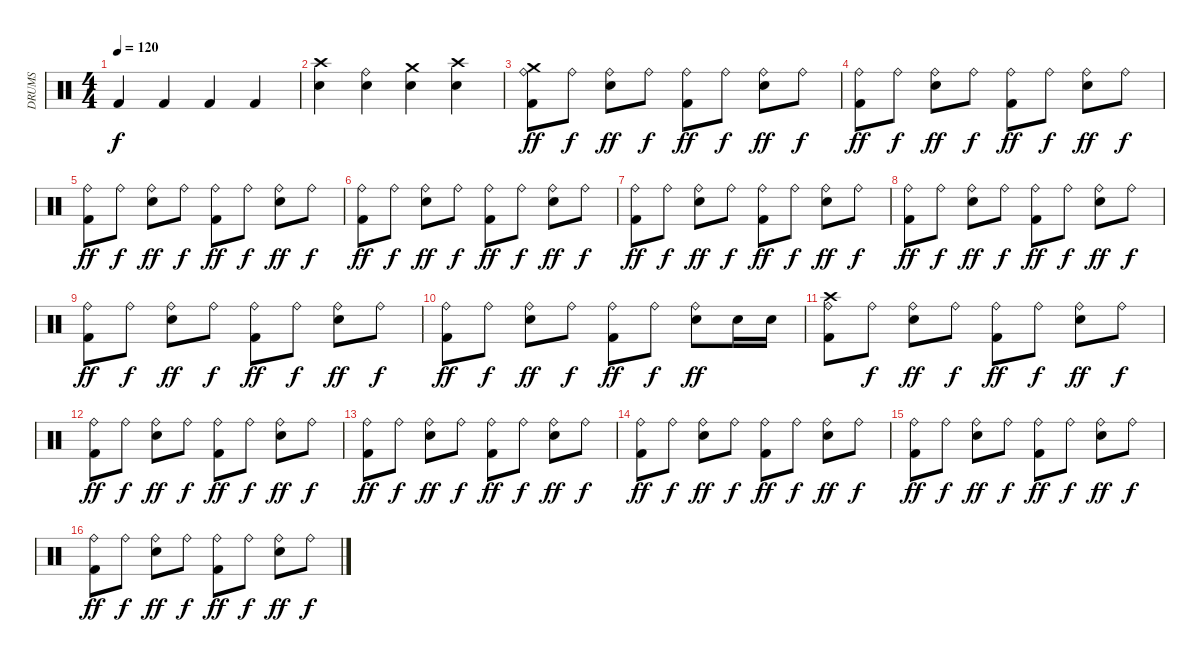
\track ("DRUMS" "DRUMS") {instrument percussion}
\staff {score}
\articulation defaults
\ts (4 4)
\tempo 120
\clef neutral
\ks c "Kick (hit) 2".4{dy f} "Kick (hit) 2".4 "Kick (hit) 2".4 "Kick (hit) 2".4
|
("Electric Snare (hit)" "Crash high (hit)").4 ("Electric Snare (hit)" "Ride (bell)").4 ("Electric Snare (hit)" "Crash medium (hit)").4 ("Electric Snare (hit)" "Crash high (hit)").4 |
("Ride (bell)" "Kick (hit) 2" "Crash medium (hit)").8{dy ff} "Ride (bell)".8{dy f} ("Ride (bell)" "Electric Snare (hit)").8{dy ff} "Ride (bell)".8{dy f} ("Ride (bell)" "Kick (hit) 2").8{dy ff} "Ride (bell)".8{dy f} ("Ride (bell)" "Electric Snare (hit)").8{dy ff} "Ride (bell)".8{dy f} |
("Ride (bell)" "Kick (hit) 2").8{dy ff} "Ride (bell)".8{dy f} ("Ride (bell)" "Electric Snare (hit)").8{dy ff} "Ride (bell)".8{dy f} ("Ride (bell)" "Kick (hit) 2").8{dy ff} "Ride (bell)".8{dy f} ("Ride (bell)" "Electric Snare (hit)").8{dy ff} "Ride (bell)".8{dy f} |
("Ride (bell)" "Kick (hit) 2").8{dy ff} "Ride (bell)".8{dy f} ("Ride (bell)" "Electric Snare (hit)").8{dy ff} "Ride (bell)".8{dy f} ("Ride (bell)" "Kick (hit) 2").8{dy ff} "Ride (bell)".8{dy f} ("Ride (bell)" "Electric Snare (hit)").8{dy ff} "Ride (bell)".8{dy f} |
("Ride (bell)" "Kick (hit) 2").8{dy ff} "Ride (bell)".8{dy f} ("Ride (bell)" "Electric Snare (hit)").8{dy ff} "Ride (bell)".8{dy f} ("Ride (bell)" "Kick (hit) 2").8{dy ff} "Ride (bell)".8{dy f} ("Ride (bell)" "Electric Snare (hit)").8{dy ff} "Ride (bell)".8{dy f} |
("Ride (bell)" "Kick (hit) 2").8{dy ff} "Ride (bell)".8{dy f} ("Ride (bell)" "Electric Snare (hit)").8{dy ff} "Ride (bell)".8{dy f} ("Ride (bell)" "Kick (hit) 2").8{dy ff} "Ride (bell)".8{dy f} ("Ride (bell)" "Electric Snare (hit)").8{dy ff} "Ride (bell)".8{dy f} |
("Ride (bell)" "Kick (hit) 2").8{dy ff} "Ride (bell)".8{dy f} ("Ride (bell)" "Electric Snare (hit)").8{dy ff} "Ride (bell)".8{dy f} ("Ride (bell)" "Kick (hit) 2").8{dy ff} "Ride (bell)".8{dy f} ("Ride (bell)" "Electric Snare (hit)").8{dy ff} "Ride (bell)".8{dy f} |
("Ride (bell)" "Kick (hit) 2").8{dy ff} "Ride (bell)".8{dy f} ("Ride (bell)" "Electric Snare (hit)").8{dy ff} "Ride (bell)".8{dy f} ("Ride (bell)" "Kick (hit) 2").8{dy ff} "Ride (bell)".8{dy f} ("Ride (bell)" "Electric Snare (hit)").8{dy ff} "Ride (bell)".8{dy f} |
("Ride (bell)" "Kick (hit) 2").8{dy ff} "Ride (bell)".8{dy f} ("Ride (bell)" "Electric Snare (hit)").8{dy ff} "Ride (bell)".8{dy f} ("Ride (bell)" "Kick (hit) 2").8{dy ff} "Ride (bell)".8{dy f} ("Ride (bell)" "Electric Snare (hit)").8{dy ff} "Electric Snare (hit)".16 "Electric Snare (hit)".16 |
("Ride (bell)" "Kick (hit) 2" "Crash high (hit)").8 "Ride (bell)".8{dy f} ("Ride (bell)" "Electric Snare (hit)").8{dy ff} "Ride (bell)".8{dy f} ("Ride (bell)" "Kick (hit) 2").8{dy ff} "Ride (bell)".8{dy f} ("Ride (bell)" "Electric Snare (hit)").8{dy ff} "Ride (bell)".8{dy f} |
("Ride (bell)" "Kick (hit) 2").8{dy ff} "Ride (bell)".8{dy f} ("Ride (bell)" "Electric Snare (hit)").8{dy ff} "Ride (bell)".8{dy f} ("Ride (bell)" "Kick (hit) 2").8{dy ff} "Ride (bell)".8{dy f} ("Ride (bell)" "Electric Snare (hit)").8{dy ff} "Ride (bell)".8{dy f} |
("Ride (bell)" "Kick (hit) 2").8{dy ff} "Ride (bell)".8{dy f} ("Ride (bell)" "Electric Snare (hit)").8{dy ff} "Ride (bell)".8{dy f} ("Ride (bell)" "Kick (hit) 2").8{dy ff} "Ride (bell)".8{dy f} ("Ride (bell)" "Electric Snare (hit)").8{dy ff} "Ride (bell)".8{dy f} |
("Ride (bell)" "Kick (hit) 2").8{dy ff} "Ride (bell)".8{dy f} ("Ride (bell)" "Electric Snare (hit)").8{dy ff} "Ride (bell)".8{dy f} ("Ride (bell)" "Kick (hit) 2").8{dy ff} "Ride (bell)".8{dy f} ("Ride (bell)" "Electric Snare (hit)").8{dy ff} "Ride (bell)".8{dy f} |
("Ride (bell)" "Kick (hit) 2").8{dy ff} "Ride (bell)".8{dy f} ("Ride (bell)" "Electric Snare (hit)").8{dy ff} "Ride (bell)".8{dy f} ("Ride (bell)" "Kick (hit) 2").8{dy ff} "Ride (bell)".8{dy f} ("Ride (bell)" "Electric Snare (hit)").8{dy ff} "Ride (bell)".8{dy f} |
("Ride (bell)" "Kick (hit) 2").8{dy ff} "Ride (bell)".8{dy f} ("Ride (bell)" "Electric Snare (hit)").8{dy ff} "Ride (bell)".8{dy f} ("Ride (bell)" "Kick (hit) 2").8{dy ff} "Ride (bell)".8{dy f} ("Ride (bell)" "Electric Snare (hit)").8{dy ff} "Ride (bell)".8{dy f}
